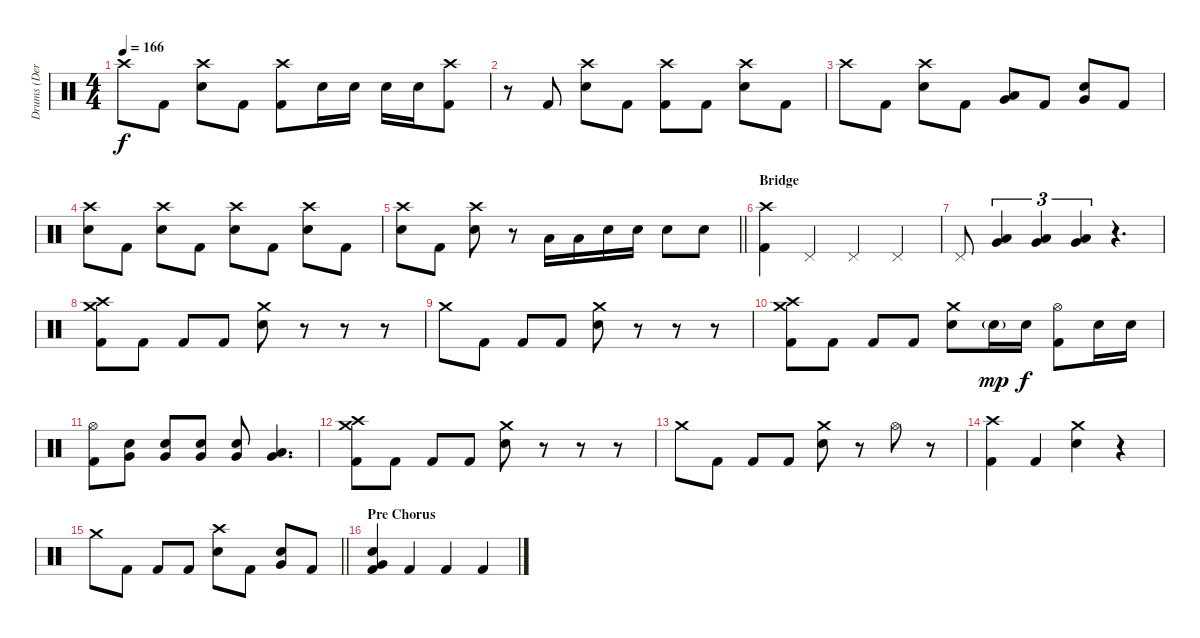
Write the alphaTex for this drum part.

\track ("Drums (Derek)" "Drums (Der") {instrument percussion}
\staff {score}
\articulation defaults
\ts (4 4)
\tempo 166
\clef neutral
\ks c "Crash high (hit)".8{dy f} "Kick (hit) 2".8
("Crash high (hit)" "Electric Snare (hit)").8 "Kick (hit) 2".8 ("Crash high (hit)" "Kick (hit) 2").8 "Electric Snare (hit)".16 "Electric Snare (hit)".16 "Electric Snare (hit)".16 "Electric Snare (hit)".16 ("Crash high (hit)" "Kick (hit) 2").8 |
r.8 "Kick (hit) 2".8 ("Crash high (hit)" "Electric Snare (hit)").8 "Kick (hit) 2".8 ("Crash high (hit)" "Kick (hit) 2").8 "Kick (hit) 2".8 ("Crash high (hit)" "Electric Snare (hit)").8 "Kick (hit) 2".8 |
"Crash high (hit)".8 "Kick (hit) 2".8 ("Crash high (hit)" "Electric Snare (hit)").8 "Kick (hit) 2".8 ("Low Tom (hit)" "Very Low Tom (hit)").8 "Kick (hit) 2".8 ("Very Low Tom (hit)" "Electric Snare (hit)").8 "Kick (hit) 2".8 |
("Crash high (hit)" "Electric Snare (hit)").8 "Kick (hit) 2".8 ("Crash high (hit)" "Electric Snare (hit)").8 "Kick (hit) 2".8 ("Crash high (hit)" "Electric Snare (hit)").8 "Kick (hit) 2".8 ("Crash high (hit)" "Electric Snare (hit)").8 "Kick (hit) 2".8 |
\barLineRight lightlight
("Crash high (hit)" "Electric Snare (hit)").8 "Kick (hit) 2".8 ("Crash high (hit)" "Electric Snare (hit)").8 r.8 "Low Tom (hit)".16 "Low Tom (hit)".16 "Electric Snare (hit)".16 "Electric Snare (hit)".16 "Electric Snare (hit)".8 "Electric Snare (hit)".8 |
\section ("" "Bridge")
("Crash high (hit)" "Kick (hit) 2").4 "Pedal Hi-Hat (hit)".4 "Pedal Hi-Hat (hit)".4 "Pedal Hi-Hat (hit)".4 |
"Pedal Hi-Hat (hit)".8 ("Very Low Tom (hit)" "Low Tom (hit)").4{tu (3 2)} ("Very Low Tom (hit)" "Low Tom (hit)").4{tu (3 2)} ("Very Low Tom (hit)" "Low Tom (hit)").4{tu (3 2)} r.4{d} |
("Crash high (hit)" "Kick (hit) 2" "Crash medium (hit)").8 "Kick (hit) 2".8 "Kick (hit) 2".8 "Kick (hit) 2".8 ("Crash medium (hit)" "Electric Snare (hit)").8 r.8 r.8 r.8 |
"Crash medium (hit)".8 "Kick (hit) 2".8 "Kick (hit) 2".8 "Kick (hit) 2".8 ("Crash medium (hit)" "Electric Snare (hit)").8 r.8 r.8 r.8 |
("Crash high (hit)" "Crash medium (hit)" "Kick (hit) 2").8 "Kick (hit) 2".8 "Kick (hit) 2".8 "Kick (hit) 2".8 ("Crash medium (hit)" "Electric Snare (hit)").8 "Electric Snare (hit)"{g}.16{dy mp} "Electric Snare (hit)".16{dy f} ("Hi-Hat (open)" "Kick (hit) 2").8 "Electric Snare (hit)".16 "Electric Snare (hit)".16 |
("Hi-Hat (open)" "Kick (hit) 2").8 ("Very Low Tom (hit)" "Electric Snare (hit)").8 ("Very Low Tom (hit)" "Electric Snare (hit)").8 ("Very Low Tom (hit)" "Electric Snare (hit)").8 ("Very Low Tom (hit)" "Electric Snare (hit)").8 ("Very Low Tom (hit)" "Low Tom (hit)").4{d} |
("Crash high (hit)" "Kick (hit) 2" "Crash medium (hit)").8 "Kick (hit) 2".8 "Kick (hit) 2".8 "Kick (hit) 2".8 ("Crash medium (hit)" "Electric Snare (hit)").8 r.8 r.8 r.8 |
"Crash medium (hit)".8 "Kick (hit) 2".8 "Kick (hit) 2".8 "Kick (hit) 2".8 ("Crash medium (hit)" "Electric Snare (hit)").8 r.8 "Hi-Hat (open)".8 r.8 |
("Crash high (hit)" "Kick (hit) 2").4 "Kick (hit) 2".4 ("Crash medium (hit)" "Electric Snare (hit)").4 r.4 |
\barLineRight lightlight "Crash medium (hit)".8 "Kick (hit) 2".8 "Kick (hit) 2".8 "Kick (hit) 2".8
("Crash high (hit)" "Electric Snare (hit)").8 "Kick (hit) 2".8 ("Very Low Tom (hit)" "Electric Snare (hit)").8 "Kick (hit) 2".8 |
\section ("" "Pre Chorus")
("Electric Snare (hit)" "Very Low Tom (hit)" "Kick (hit) 2").4 "Kick (hit) 2".4 "Kick (hit) 2".4 "Kick (hit) 2".4
